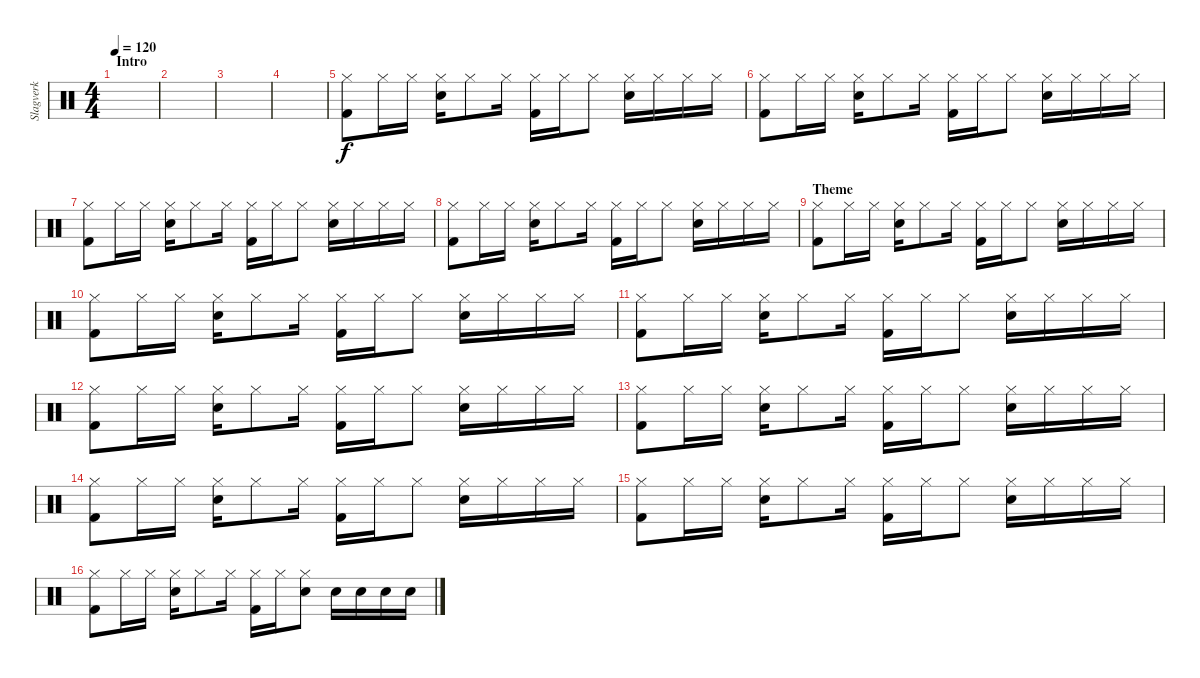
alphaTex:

\track ("Slagverk" "Slagverk") {instrument percussion}
\staff {score}
\articulation defaults
\ts (4 4)
\section ("" "Intro")
\tempo 120
\clef neutral
\ks c
|
|
|
|
("Hi-Hat (closed)" "Kick (hit) 2").8 "Hi-Hat (closed)".16 "Hi-Hat (closed)".16 ("Hi-Hat (closed)" "Snare (hit) 2").16 "Hi-Hat (closed)".8 "Hi-Hat (closed)".16 ("Hi-Hat (closed)" "Kick (hit) 2").16 "Hi-Hat (closed)".16 "Hi-Hat (closed)".8 ("Hi-Hat (closed)" "Snare (hit) 2").16 "Hi-Hat (closed)".16 "Hi-Hat (closed)".16 "Hi-Hat (closed)".16 |
("Hi-Hat (closed)" "Kick (hit) 2").8 "Hi-Hat (closed)".16 "Hi-Hat (closed)".16 ("Hi-Hat (closed)" "Snare (hit) 2").16 "Hi-Hat (closed)".8 "Hi-Hat (closed)".16 ("Hi-Hat (closed)" "Kick (hit) 2").16 "Hi-Hat (closed)".16 "Hi-Hat (closed)".8 ("Hi-Hat (closed)" "Snare (hit) 2").16 "Hi-Hat (closed)".16 "Hi-Hat (closed)".16 "Hi-Hat (closed)".16 |
("Hi-Hat (closed)" "Kick (hit) 2").8 "Hi-Hat (closed)".16 "Hi-Hat (closed)".16 ("Hi-Hat (closed)" "Snare (hit) 2").16 "Hi-Hat (closed)".8 "Hi-Hat (closed)".16 ("Hi-Hat (closed)" "Kick (hit) 2").16 "Hi-Hat (closed)".16 "Hi-Hat (closed)".8 ("Hi-Hat (closed)" "Snare (hit) 2").16 "Hi-Hat (closed)".16 "Hi-Hat (closed)".16 "Hi-Hat (closed)".16 |
("Hi-Hat (closed)" "Kick (hit) 2").8 "Hi-Hat (closed)".16 "Hi-Hat (closed)".16 ("Hi-Hat (closed)" "Snare (hit) 2").16 "Hi-Hat (closed)".8 "Hi-Hat (closed)".16 ("Hi-Hat (closed)" "Kick (hit) 2").16 "Hi-Hat (closed)".16 "Hi-Hat (closed)".8 ("Hi-Hat (closed)" "Snare (hit) 2").16 "Hi-Hat (closed)".16 "Hi-Hat (closed)".16 "Hi-Hat (closed)".16 |
\section ("" "Theme")
("Hi-Hat (closed)" "Kick (hit) 2").8 "Hi-Hat (closed)".16 "Hi-Hat (closed)".16 ("Hi-Hat (closed)" "Snare (hit) 2").16 "Hi-Hat (closed)".8 "Hi-Hat (closed)".16 ("Hi-Hat (closed)" "Kick (hit) 2").16 "Hi-Hat (closed)".16 "Hi-Hat (closed)".8 ("Hi-Hat (closed)" "Snare (hit) 2").16 "Hi-Hat (closed)".16 "Hi-Hat (closed)".16 "Hi-Hat (closed)".16 |
("Hi-Hat (closed)" "Kick (hit) 2").8 "Hi-Hat (closed)".16 "Hi-Hat (closed)".16 ("Hi-Hat (closed)" "Snare (hit) 2").16 "Hi-Hat (closed)".8 "Hi-Hat (closed)".16 ("Hi-Hat (closed)" "Kick (hit) 2").16 "Hi-Hat (closed)".16 "Hi-Hat (closed)".8 ("Hi-Hat (closed)" "Snare (hit) 2").16 "Hi-Hat (closed)".16 "Hi-Hat (closed)".16 "Hi-Hat (closed)".16 |
("Hi-Hat (closed)" "Kick (hit) 2").8 "Hi-Hat (closed)".16 "Hi-Hat (closed)".16 ("Hi-Hat (closed)" "Snare (hit) 2").16 "Hi-Hat (closed)".8 "Hi-Hat (closed)".16 ("Hi-Hat (closed)" "Kick (hit) 2").16 "Hi-Hat (closed)".16 "Hi-Hat (closed)".8 ("Hi-Hat (closed)" "Snare (hit) 2").16 "Hi-Hat (closed)".16 "Hi-Hat (closed)".16 "Hi-Hat (closed)".16 |
("Hi-Hat (closed)" "Kick (hit) 2").8 "Hi-Hat (closed)".16 "Hi-Hat (closed)".16 ("Hi-Hat (closed)" "Snare (hit) 2").16 "Hi-Hat (closed)".8 "Hi-Hat (closed)".16 ("Hi-Hat (closed)" "Kick (hit) 2").16 "Hi-Hat (closed)".16 "Hi-Hat (closed)".8 ("Hi-Hat (closed)" "Snare (hit) 2").16 "Hi-Hat (closed)".16 "Hi-Hat (closed)".16 "Hi-Hat (closed)".16 |
("Hi-Hat (closed)" "Kick (hit) 2").8 "Hi-Hat (closed)".16 "Hi-Hat (closed)".16 ("Hi-Hat (closed)" "Snare (hit) 2").16 "Hi-Hat (closed)".8 "Hi-Hat (closed)".16 ("Hi-Hat (closed)" "Kick (hit) 2").16 "Hi-Hat (closed)".16 "Hi-Hat (closed)".8 ("Hi-Hat (closed)" "Snare (hit) 2").16 "Hi-Hat (closed)".16 "Hi-Hat (closed)".16 "Hi-Hat (closed)".16 |
("Hi-Hat (closed)" "Kick (hit) 2").8 "Hi-Hat (closed)".16 "Hi-Hat (closed)".16 ("Hi-Hat (closed)" "Snare (hit) 2").16 "Hi-Hat (closed)".8 "Hi-Hat (closed)".16 ("Hi-Hat (closed)" "Kick (hit) 2").16 "Hi-Hat (closed)".16 "Hi-Hat (closed)".8 ("Hi-Hat (closed)" "Snare (hit) 2").16 "Hi-Hat (closed)".16 "Hi-Hat (closed)".16 "Hi-Hat (closed)".16 |
("Hi-Hat (closed)" "Kick (hit) 2").8 "Hi-Hat (closed)".16 "Hi-Hat (closed)".16 ("Hi-Hat (closed)" "Snare (hit) 2").16 "Hi-Hat (closed)".8 "Hi-Hat (closed)".16 ("Hi-Hat (closed)" "Kick (hit) 2").16 "Hi-Hat (closed)".16 "Hi-Hat (closed)".8 ("Hi-Hat (closed)" "Snare (hit) 2").16 "Hi-Hat (closed)".16 "Hi-Hat (closed)".16 "Hi-Hat (closed)".16 |
("Hi-Hat (closed)" "Kick (hit) 2").8 "Hi-Hat (closed)".16 "Hi-Hat (closed)".16 ("Hi-Hat (closed)" "Snare (hit) 2").16 "Hi-Hat (closed)".8 "Hi-Hat (closed)".16 ("Hi-Hat (closed)" "Kick (hit) 2").16 "Hi-Hat (closed)".16 ("Hi-Hat (closed)" "Snare (hit) 2").8 "Snare (hit) 2".16 "Snare (hit) 2".16 "Snare (hit) 2".16 "Snare (hit) 2".16
